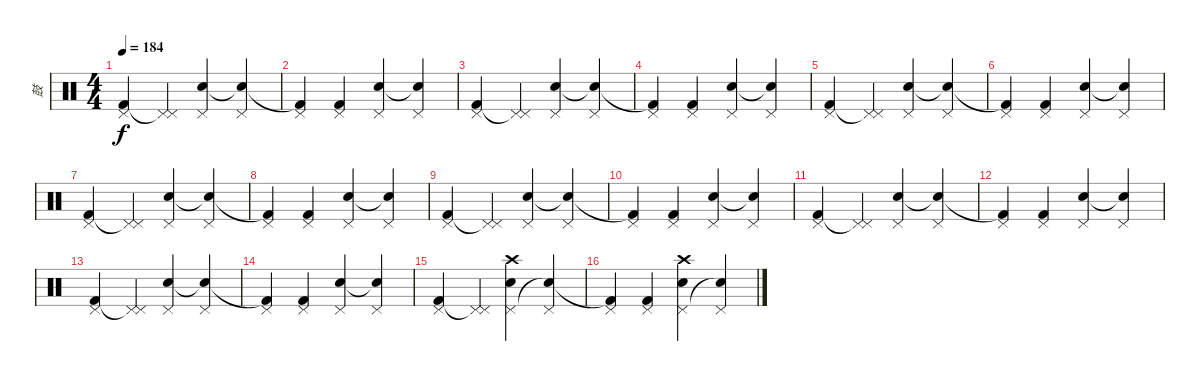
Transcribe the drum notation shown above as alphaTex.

\track ("鼓" "鼓") {instrument percussion}
\staff {score}
\articulation defaults
\ts (4 4)
\tempo 184
\clef neutral
\ks c
("Pedal Hi-Hat (hit)" "Kick (hit) 2").4{dy f} ("Pedal Hi-Hat (hit)" "Pedal Hi-Hat (hit)"{t}).4 ("Pedal Hi-Hat (hit)" "Electric Snare (hit)").4 ("Pedal Hi-Hat (hit)" "Snare (hit)"{t}).4 |
("Pedal Hi-Hat (hit)" "Kick (hit) 2"{t}).4 ("Pedal Hi-Hat (hit)" "Kick (hit) 2").4 ("Pedal Hi-Hat (hit)" "Electric Snare (hit)").4 ("Pedal Hi-Hat (hit)" "Snare (hit)"{t}).4 |
("Pedal Hi-Hat (hit)" "Kick (hit) 2").4 ("Pedal Hi-Hat (hit)" "Pedal Hi-Hat (hit)"{t}).4 ("Pedal Hi-Hat (hit)" "Electric Snare (hit)").4 ("Pedal Hi-Hat (hit)" "Snare (hit)"{t}).4 |
("Pedal Hi-Hat (hit)" "Kick (hit) 2"{t}).4 ("Pedal Hi-Hat (hit)" "Kick (hit) 2").4 ("Pedal Hi-Hat (hit)" "Electric Snare (hit)").4 ("Pedal Hi-Hat (hit)" "Snare (hit)"{t}).4 |
("Pedal Hi-Hat (hit)" "Kick (hit) 2").4 ("Pedal Hi-Hat (hit)" "Pedal Hi-Hat (hit)"{t}).4 ("Pedal Hi-Hat (hit)" "Electric Snare (hit)").4 ("Pedal Hi-Hat (hit)" "Snare (hit)"{t}).4 |
("Pedal Hi-Hat (hit)" "Kick (hit) 2"{t}).4 ("Pedal Hi-Hat (hit)" "Kick (hit) 2").4 ("Pedal Hi-Hat (hit)" "Electric Snare (hit)").4 ("Pedal Hi-Hat (hit)" "Snare (hit)"{t}).4 |
("Pedal Hi-Hat (hit)" "Kick (hit) 2").4 ("Pedal Hi-Hat (hit)" "Pedal Hi-Hat (hit)"{t}).4 ("Pedal Hi-Hat (hit)" "Electric Snare (hit)").4 ("Pedal Hi-Hat (hit)" "Snare (hit)"{t}).4 |
("Pedal Hi-Hat (hit)" "Kick (hit) 2"{t}).4 ("Pedal Hi-Hat (hit)" "Kick (hit) 2").4 ("Pedal Hi-Hat (hit)" "Electric Snare (hit)").4 ("Pedal Hi-Hat (hit)" "Snare (hit)"{t}).4 |
("Pedal Hi-Hat (hit)" "Kick (hit) 2").4 ("Pedal Hi-Hat (hit)" "Pedal Hi-Hat (hit)"{t}).4 ("Pedal Hi-Hat (hit)" "Electric Snare (hit)").4 ("Pedal Hi-Hat (hit)" "Snare (hit)"{t}).4 |
("Pedal Hi-Hat (hit)" "Kick (hit) 2"{t}).4 ("Pedal Hi-Hat (hit)" "Kick (hit) 2").4 ("Pedal Hi-Hat (hit)" "Electric Snare (hit)").4 ("Pedal Hi-Hat (hit)" "Snare (hit)"{t}).4 |
("Pedal Hi-Hat (hit)" "Kick (hit) 2").4 ("Pedal Hi-Hat (hit)" "Pedal Hi-Hat (hit)"{t}).4 ("Pedal Hi-Hat (hit)" "Electric Snare (hit)").4 ("Pedal Hi-Hat (hit)" "Snare (hit)"{t}).4 |
("Pedal Hi-Hat (hit)" "Kick (hit) 2"{t}).4 ("Pedal Hi-Hat (hit)" "Kick (hit) 2").4 ("Pedal Hi-Hat (hit)" "Electric Snare (hit)").4 ("Pedal Hi-Hat (hit)" "Snare (hit)"{t}).4 |
("Pedal Hi-Hat (hit)" "Kick (hit) 2").4 ("Pedal Hi-Hat (hit)" "Pedal Hi-Hat (hit)"{t}).4 ("Pedal Hi-Hat (hit)" "Electric Snare (hit)").4 ("Pedal Hi-Hat (hit)" "Snare (hit)"{t}).4 |
("Pedal Hi-Hat (hit)" "Kick (hit) 2"{t}).4 ("Pedal Hi-Hat (hit)" "Kick (hit) 2").4 ("Pedal Hi-Hat (hit)" "Electric Snare (hit)").4 ("Pedal Hi-Hat (hit)" "Snare (hit)"{t}).4 |
("Pedal Hi-Hat (hit)" "Kick (hit) 2").4 ("Pedal Hi-Hat (hit)" "Pedal Hi-Hat (hit)"{t}).4 ("Crash high (hit)" "Pedal Hi-Hat (hit)" "Electric Snare (hit)").4 ("Pedal Hi-Hat (hit)" "Snare (hit)"{t}).4 |
("Pedal Hi-Hat (hit)" "Kick (hit) 2"{t}).4 ("Pedal Hi-Hat (hit)" "Kick (hit) 2").4 ("Crash high (hit)" "Pedal Hi-Hat (hit)" "Electric Snare (hit)").4 ("Pedal Hi-Hat (hit)" "Snare (hit)"{t}).4
